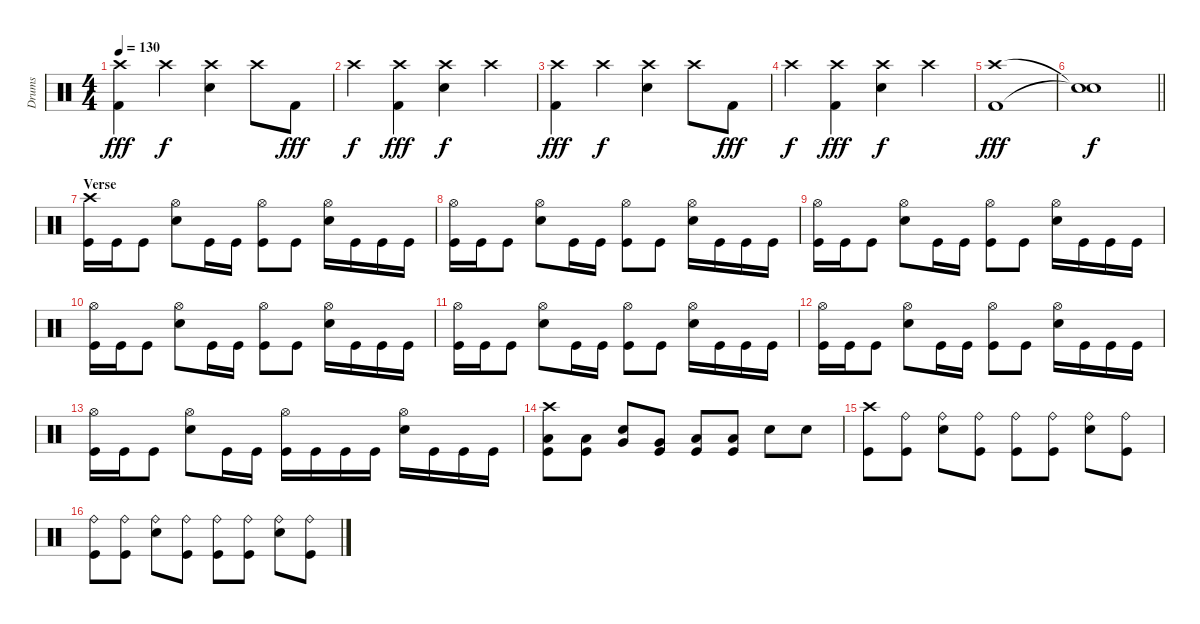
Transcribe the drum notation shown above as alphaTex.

\track ("Drums" "Drums") {instrument percussion}
\staff {score}
\articulation defaults
\ts (4 4)
\tempo 130
\clef neutral
\ks c
("Crash high (hit)" "Kick (hit) 2").4{dy fff} "Crash high (hit)".4{dy f} ("Crash high (hit)" "Electric Snare (hit)").4 "Crash high (hit)".8 "Kick (hit) 2".8{dy fff} |
"Crash high (hit)".4{dy f} ("Crash high (hit)" "Kick (hit) 2").4{dy fff} ("Crash high (hit)" "Electric Snare (hit)").4{dy f} "Crash high (hit)".4 |
("Crash high (hit)" "Kick (hit) 2").4{dy fff} "Crash high (hit)".4{dy f} ("Crash high (hit)" "Electric Snare (hit)").4 "Crash high (hit)".8 "Kick (hit) 2".8{dy fff} |
"Crash high (hit)".4{dy f} ("Crash high (hit)" "Kick (hit) 2").4{dy fff} ("Crash high (hit)" "Electric Snare (hit)").4{dy f} "Crash high (hit)".4 |
("Crash high (hit)" "Kick (hit) 2").1{dy fff} |
\barLineRight lightlight
("Snare (hit)"{t} "Snare (hit)"{t}).1{dy f} |
\section ("" "Verse ")
("Crash high (hit)" "Kick (hit)").16 "Kick (hit)".16 "Kick (hit)".8 ("Hi-Hat (open)" "Electric Snare (hit)").8 "Kick (hit)".16 "Kick (hit)".16 ("Hi-Hat (open)" "Kick (hit)").8 "Kick (hit)".8 ("Hi-Hat (open)" "Electric Snare (hit)").16 "Kick (hit)".16 "Kick (hit)".16 "Kick (hit)".16 |
("Hi-Hat (open)" "Kick (hit)").16 "Kick (hit)".16 "Kick (hit)".8 ("Hi-Hat (open)" "Electric Snare (hit)").8 "Kick (hit)".16 "Kick (hit)".16 ("Hi-Hat (open)" "Kick (hit)").8 "Kick (hit)".8 ("Hi-Hat (open)" "Electric Snare (hit)").16 "Kick (hit)".16 "Kick (hit)".16 "Kick (hit)".16 |
("Hi-Hat (open)" "Kick (hit)").16 "Kick (hit)".16 "Kick (hit)".8 ("Hi-Hat (open)" "Electric Snare (hit)").8 "Kick (hit)".16 "Kick (hit)".16 ("Hi-Hat (open)" "Kick (hit)").8 "Kick (hit)".8 ("Hi-Hat (open)" "Electric Snare (hit)").16 "Kick (hit)".16 "Kick (hit)".16 "Kick (hit)".16 |
("Hi-Hat (open)" "Kick (hit)").16 "Kick (hit)".16 "Kick (hit)".8 ("Hi-Hat (open)" "Electric Snare (hit)").8 "Kick (hit)".16 "Kick (hit)".16 ("Hi-Hat (open)" "Kick (hit)").8 "Kick (hit)".8 ("Hi-Hat (open)" "Electric Snare (hit)").16 "Kick (hit)".16 "Kick (hit)".16 "Kick (hit)".16 |
("Hi-Hat (open)" "Kick (hit)").16 "Kick (hit)".16 "Kick (hit)".8 ("Hi-Hat (open)" "Electric Snare (hit)").8 "Kick (hit)".16 "Kick (hit)".16 ("Hi-Hat (open)" "Kick (hit)").8 "Kick (hit)".8 ("Hi-Hat (open)" "Electric Snare (hit)").16 "Kick (hit)".16 "Kick (hit)".16 "Kick (hit)".16 |
("Hi-Hat (open)" "Kick (hit)").16 "Kick (hit)".16 "Kick (hit)".8 ("Hi-Hat (open)" "Electric Snare (hit)").8 "Kick (hit)".16 "Kick (hit)".16 ("Hi-Hat (open)" "Kick (hit)").8 "Kick (hit)".8 ("Hi-Hat (open)" "Electric Snare (hit)").16 "Kick (hit)".16 "Kick (hit)".16 "Kick (hit)".16 |
("Hi-Hat (open)" "Kick (hit)").16 "Kick (hit)".16 "Kick (hit)".8 ("Hi-Hat (open)" "Electric Snare (hit)").8 "Kick (hit)".16 "Kick (hit)".16 ("Hi-Hat (open)" "Kick (hit)").16 "Kick (hit)".16 "Kick (hit)".16 "Kick (hit)".16 ("Hi-Hat (open)" "Electric Snare (hit)").16 "Kick (hit)".16 "Kick (hit)".16 "Kick (hit)".16 |
("Crash high (hit)" "Low Floor Tom (hit)" "Kick (hit)").8 ("Low Floor Tom (hit)" "Kick (hit)").8 ("Very Low Tom (hit)" "Electric Snare (hit)").8 ("Very Low Tom (hit)" "Kick (hit)").8 ("Low Tom (hit)" "Kick (hit)").8 ("Low Tom (hit)" "Kick (hit)").8 "Electric Snare (hit)".8 "Electric Snare (hit)".8 |
("Crash high (hit)" "Kick (hit)").8 ("Ride (bell)" "Kick (hit)").8 ("Ride (bell)" "Electric Snare (hit)").8 ("Ride (bell)" "Kick (hit)").8 ("Ride (bell)" "Kick (hit)").8 ("Ride (bell)" "Kick (hit)").8 ("Ride (bell)" "Electric Snare (hit)").8 ("Ride (bell)" "Kick (hit)").8 |
("Ride (bell)" "Kick (hit)").8 ("Ride (bell)" "Kick (hit)").8 ("Ride (bell)" "Electric Snare (hit)").8 ("Ride (bell)" "Kick (hit)").8 ("Ride (bell)" "Kick (hit)").8 ("Ride (bell)" "Kick (hit)").8 ("Ride (bell)" "Electric Snare (hit)").8 ("Ride (bell)" "Kick (hit)").8
